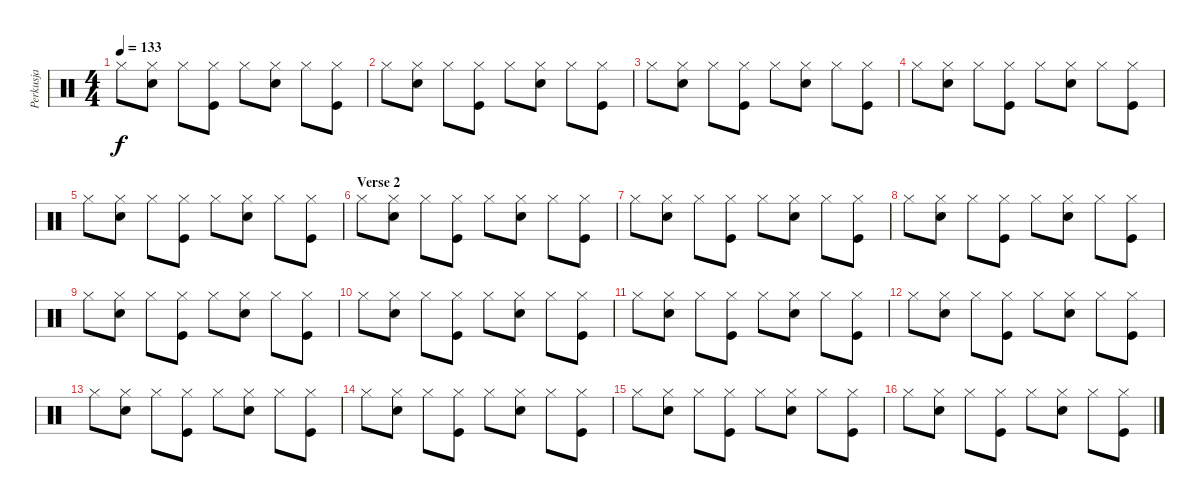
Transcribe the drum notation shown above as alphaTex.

\track ("Perkusja" "Perkusja") {instrument percussion}
\staff {score}
\articulation defaults
\ts (4 4)
\tempo 133
\clef neutral
\ks c "Hi-Hat (closed)".8{dy f}
("Hi-Hat (closed)" "Snare (hit) 2").8 "Hi-Hat (closed)".8 ("Hi-Hat (closed)" "Kick (hit)").8 "Hi-Hat (closed)".8 ("Hi-Hat (closed)" "Snare (hit) 2").8 "Hi-Hat (closed)".8 ("Hi-Hat (closed)" "Kick (hit)").8 |
"Hi-Hat (closed)".8 ("Hi-Hat (closed)" "Snare (hit) 2").8 "Hi-Hat (closed)".8 ("Hi-Hat (closed)" "Kick (hit)").8 "Hi-Hat (closed)".8 ("Hi-Hat (closed)" "Snare (hit) 2").8 "Hi-Hat (closed)".8 ("Hi-Hat (closed)" "Kick (hit)").8 |
"Hi-Hat (closed)".8 ("Hi-Hat (closed)" "Snare (hit) 2").8 "Hi-Hat (closed)".8 ("Hi-Hat (closed)" "Kick (hit)").8 "Hi-Hat (closed)".8 ("Hi-Hat (closed)" "Snare (hit) 2").8 "Hi-Hat (closed)".8 ("Hi-Hat (closed)" "Kick (hit)").8 |
"Hi-Hat (closed)".8 ("Hi-Hat (closed)" "Snare (hit) 2").8 "Hi-Hat (closed)".8 ("Hi-Hat (closed)" "Kick (hit)").8 "Hi-Hat (closed)".8 ("Hi-Hat (closed)" "Snare (hit) 2").8 "Hi-Hat (closed)".8 ("Hi-Hat (closed)" "Kick (hit)").8 |
"Hi-Hat (closed)".8 ("Hi-Hat (closed)" "Snare (hit) 2").8 "Hi-Hat (closed)".8 ("Hi-Hat (closed)" "Kick (hit)").8 "Hi-Hat (closed)".8 ("Hi-Hat (closed)" "Snare (hit) 2").8 "Hi-Hat (closed)".8 ("Hi-Hat (closed)" "Kick (hit)").8 |
\section ("" "Verse 2")
"Hi-Hat (closed)".8 ("Hi-Hat (closed)" "Snare (hit) 2").8 "Hi-Hat (closed)".8 ("Hi-Hat (closed)" "Kick (hit)").8 "Hi-Hat (closed)".8 ("Hi-Hat (closed)" "Snare (hit) 2").8 "Hi-Hat (closed)".8 ("Hi-Hat (closed)" "Kick (hit)").8 |
"Hi-Hat (closed)".8 ("Hi-Hat (closed)" "Snare (hit) 2").8 "Hi-Hat (closed)".8 ("Hi-Hat (closed)" "Kick (hit)").8 "Hi-Hat (closed)".8 ("Hi-Hat (closed)" "Snare (hit) 2").8 "Hi-Hat (closed)".8 ("Hi-Hat (closed)" "Kick (hit)").8 |
"Hi-Hat (closed)".8 ("Hi-Hat (closed)" "Snare (hit) 2").8 "Hi-Hat (closed)".8 ("Hi-Hat (closed)" "Kick (hit)").8 "Hi-Hat (closed)".8 ("Hi-Hat (closed)" "Snare (hit) 2").8 "Hi-Hat (closed)".8 ("Hi-Hat (closed)" "Kick (hit)").8 |
"Hi-Hat (closed)".8 ("Hi-Hat (closed)" "Snare (hit) 2").8 "Hi-Hat (closed)".8 ("Hi-Hat (closed)" "Kick (hit)").8 "Hi-Hat (closed)".8 ("Hi-Hat (closed)" "Snare (hit) 2").8 "Hi-Hat (closed)".8 ("Hi-Hat (closed)" "Kick (hit)").8 |
"Hi-Hat (closed)".8 ("Hi-Hat (closed)" "Snare (hit) 2").8 "Hi-Hat (closed)".8 ("Hi-Hat (closed)" "Kick (hit)").8 "Hi-Hat (closed)".8 ("Hi-Hat (closed)" "Snare (hit) 2").8 "Hi-Hat (closed)".8 ("Hi-Hat (closed)" "Kick (hit)").8 |
"Hi-Hat (closed)".8 ("Hi-Hat (closed)" "Snare (hit) 2").8 "Hi-Hat (closed)".8 ("Hi-Hat (closed)" "Kick (hit)").8 "Hi-Hat (closed)".8 ("Hi-Hat (closed)" "Snare (hit) 2").8 "Hi-Hat (closed)".8 ("Hi-Hat (closed)" "Kick (hit)").8 |
"Hi-Hat (closed)".8 ("Hi-Hat (closed)" "Snare (hit) 2").8 "Hi-Hat (closed)".8 ("Hi-Hat (closed)" "Kick (hit)").8 "Hi-Hat (closed)".8 ("Hi-Hat (closed)" "Snare (hit) 2").8 "Hi-Hat (closed)".8 ("Hi-Hat (closed)" "Kick (hit)").8 |
"Hi-Hat (closed)".8 ("Hi-Hat (closed)" "Snare (hit) 2").8 "Hi-Hat (closed)".8 ("Hi-Hat (closed)" "Kick (hit)").8 "Hi-Hat (closed)".8 ("Hi-Hat (closed)" "Snare (hit) 2").8 "Hi-Hat (closed)".8 ("Hi-Hat (closed)" "Kick (hit)").8 |
"Hi-Hat (closed)".8 ("Hi-Hat (closed)" "Snare (hit) 2").8 "Hi-Hat (closed)".8 ("Hi-Hat (closed)" "Kick (hit)").8 "Hi-Hat (closed)".8 ("Hi-Hat (closed)" "Snare (hit) 2").8 "Hi-Hat (closed)".8 ("Hi-Hat (closed)" "Kick (hit)").8 |
"Hi-Hat (closed)".8 ("Hi-Hat (closed)" "Snare (hit) 2").8 "Hi-Hat (closed)".8 ("Hi-Hat (closed)" "Kick (hit)").8 "Hi-Hat (closed)".8 ("Hi-Hat (closed)" "Snare (hit) 2").8 "Hi-Hat (closed)".8 ("Hi-Hat (closed)" "Kick (hit)").8 |
"Hi-Hat (closed)".8 ("Hi-Hat (closed)" "Snare (hit) 2").8 "Hi-Hat (closed)".8 ("Hi-Hat (closed)" "Kick (hit)").8 "Hi-Hat (closed)".8 ("Hi-Hat (closed)" "Snare (hit) 2").8 "Hi-Hat (closed)".8 ("Hi-Hat (closed)" "Kick (hit)").8
